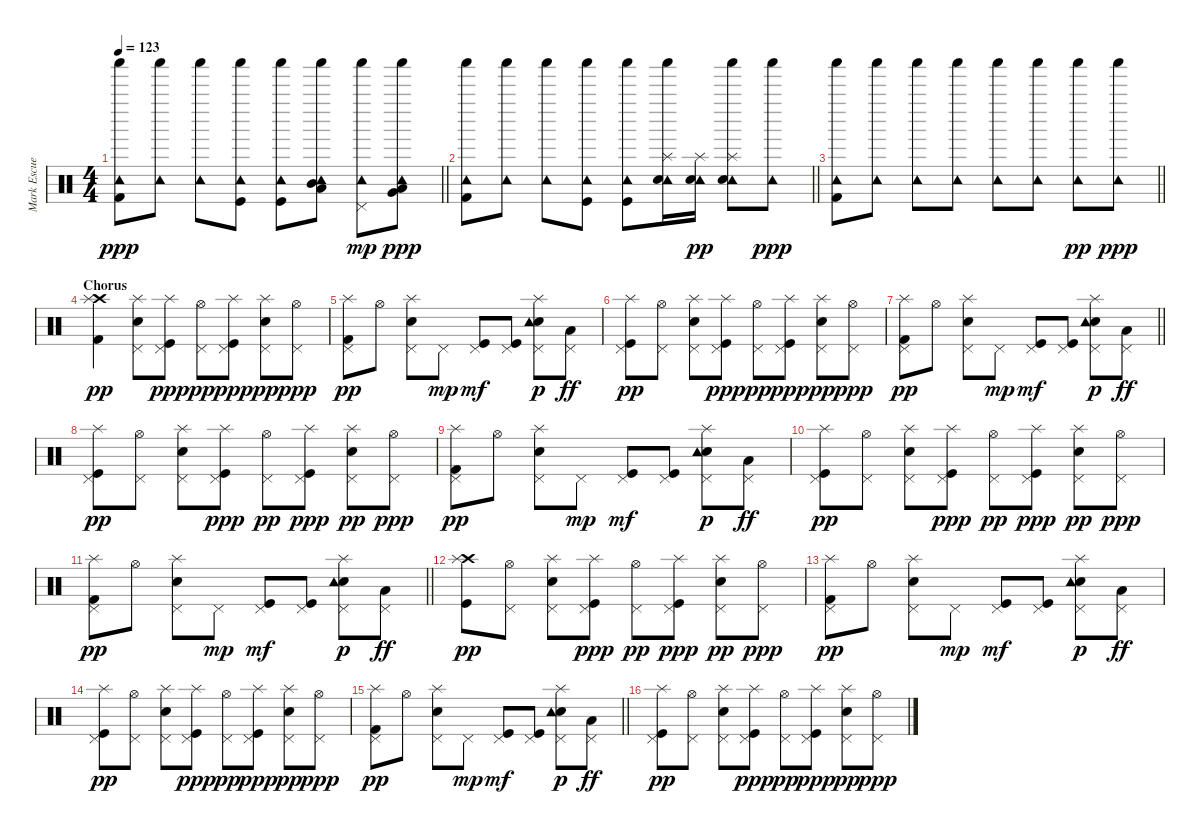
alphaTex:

\track ("Mark Escueta - Drums" "Mark Escue") {instrument percussion}
\staff {score}
\articulation defaults
\ts (4 4)
\tempo 123
\clef neutral
\barLineRight lightlight
\ks c
("Shaker (hit)" "Tambourine (hit)" "Kick (hit) 2").8{dy ppp} ("Shaker (hit)" "Tambourine (hit)").8 ("Shaker (hit)" "Tambourine (hit)").8 ("Shaker (hit)" "Tambourine (hit)" "Kick (hit)").8 ("Shaker (hit)" "Tambourine (hit)" "Kick (hit)").8 ("Shaker (hit)" "Tambourine (hit)" "Low Tom (hit)" "Mid Tom (hit)").8{bu 60} ("Shaker (hit)" "Tambourine (hit)" "Pedal Hi-Hat (hit)").8{dy mp} ("Shaker (hit)" "Tambourine (hit)" "Very Low Tom (hit)" "Low Tom (hit)").8{bu 60 dy ppp} |
\barLineRight lightlight
("Shaker (hit)" "Tambourine (hit)" "Kick (hit) 2").8 ("Shaker (hit)" "Tambourine (hit)").8 ("Shaker (hit)" "Tambourine (hit)").8 ("Shaker (hit)" "Tambourine (hit)" "Kick (hit)").8 ("Shaker (hit)" "Tambourine (hit)" "Kick (hit)").8 ("Shaker (hit)" "Tambourine (hit)" "Electric Snare (hit)" "Splash (hit)").16 ("Tambourine (hit)" "Electric Snare (hit)" "Splash (hit)").16{dy pp} ("Shaker (hit)" "Tambourine (hit)" "Electric Snare (hit)" "Splash (hit)").8 ("Shaker (hit)" "Tambourine (hit)").8{dy ppp} |
\barLineRight lightlight
("Shaker (hit)" "Tambourine (hit)" "Kick (hit) 2").8 ("Shaker (hit)" "Tambourine (hit)").8 ("Shaker (hit)" "Tambourine (hit)").8 ("Shaker (hit)" "Tambourine (hit)").8 ("Shaker (hit)" "Tambourine (hit)").8 ("Shaker (hit)" "Tambourine (hit)").8 ("Shaker (hit)" "Tambourine (hit)").8{dy pp} ("Shaker (hit)" "Tambourine (hit)").8{dy ppp} |
\section ("" "Chorus")
("Crash high (hit)" "Kick (hit) 2" "Splash (hit)").4{dy pp} ("Pedal Hi-Hat (hit)" "Electric Snare (hit)" "Splash (hit)").8 ("Pedal Hi-Hat (hit)" "Kick (hit)" "Splash (hit)").8{dy ppp} ("Pedal Hi-Hat (hit)" "Hi-Hat (open)").8{dy pp} ("Pedal Hi-Hat (hit)" "Kick (hit)" "Splash (hit)").8{dy ppp} ("Pedal Hi-Hat (hit)" "Electric Snare (hit)" "Splash (hit)").8{dy pp} ("Pedal Hi-Hat (hit)" "Hi-Hat (open)").8{dy ppp} |
("Pedal Hi-Hat (hit)" "Kick (hit) 2" "Splash (hit)").8{dy pp} "Hi-Hat (open)".8 ("Pedal Hi-Hat (hit)" "Electric Snare (hit)" "Splash (hit)").8 "Pedal Hi-Hat (hit)".8{dy mp} ("Pedal Hi-Hat (hit)" "Kick (hit)").8{dy mf} ("Pedal Hi-Hat (hit)" "Kick (hit)").8 ("Pedal Hi-Hat (hit)" "Electric Snare (hit)" "Splash (hit)" "Tambourine (hit)").8{dy p} ("Pedal Hi-Hat (hit)" "Low Tom (hit)").8{dy ff} |
("Pedal Hi-Hat (hit)" "Kick (hit)" "Splash (hit)").8{dy pp} ("Pedal Hi-Hat (hit)" "Hi-Hat (open)").8 ("Pedal Hi-Hat (hit)" "Electric Snare (hit)" "Splash (hit)").8 ("Pedal Hi-Hat (hit)" "Kick (hit)" "Splash (hit)").8{dy ppp} ("Pedal Hi-Hat (hit)" "Hi-Hat (open)").8{dy pp} ("Pedal Hi-Hat (hit)" "Kick (hit)" "Splash (hit)").8{dy ppp} ("Pedal Hi-Hat (hit)" "Electric Snare (hit)" "Splash (hit)").8{dy pp} ("Pedal Hi-Hat (hit)" "Hi-Hat (open)").8{dy ppp} |
\barLineRight lightlight
("Pedal Hi-Hat (hit)" "Kick (hit) 2" "Splash (hit)").8{dy pp} "Hi-Hat (open)".8 ("Pedal Hi-Hat (hit)" "Electric Snare (hit)" "Splash (hit)").8 "Pedal Hi-Hat (hit)".8{dy mp} ("Pedal Hi-Hat (hit)" "Kick (hit)").8{dy mf} ("Pedal Hi-Hat (hit)" "Kick (hit)").8 ("Pedal Hi-Hat (hit)" "Electric Snare (hit)" "Splash (hit)" "Tambourine (hit)").8{dy p} ("Pedal Hi-Hat (hit)" "Low Tom (hit)").8{dy ff} |
("Pedal Hi-Hat (hit)" "Kick (hit)" "Splash (hit)").8{dy pp} ("Pedal Hi-Hat (hit)" "Hi-Hat (open)").8 ("Pedal Hi-Hat (hit)" "Electric Snare (hit)" "Splash (hit)").8 ("Pedal Hi-Hat (hit)" "Kick (hit)" "Splash (hit)").8{dy ppp} ("Pedal Hi-Hat (hit)" "Hi-Hat (open)").8{dy pp} ("Pedal Hi-Hat (hit)" "Kick (hit)" "Splash (hit)").8{dy ppp} ("Pedal Hi-Hat (hit)" "Electric Snare (hit)" "Splash (hit)").8{dy pp} ("Pedal Hi-Hat (hit)" "Hi-Hat (open)").8{dy ppp} |
("Pedal Hi-Hat (hit)" "Kick (hit) 2" "Splash (hit)").8{dy pp} "Hi-Hat (open)".8 ("Pedal Hi-Hat (hit)" "Electric Snare (hit)" "Splash (hit)").8 "Pedal Hi-Hat (hit)".8{dy mp} ("Pedal Hi-Hat (hit)" "Kick (hit)").8{dy mf} ("Pedal Hi-Hat (hit)" "Kick (hit)").8 ("Pedal Hi-Hat (hit)" "Electric Snare (hit)" "Splash (hit)" "Tambourine (hit)").8{dy p} ("Pedal Hi-Hat (hit)" "Low Tom (hit)").8{dy ff} |
("Pedal Hi-Hat (hit)" "Kick (hit)" "Splash (hit)").8{dy pp} ("Pedal Hi-Hat (hit)" "Hi-Hat (open)").8 ("Pedal Hi-Hat (hit)" "Electric Snare (hit)" "Splash (hit)").8 ("Pedal Hi-Hat (hit)" "Kick (hit)" "Splash (hit)").8{dy ppp} ("Pedal Hi-Hat (hit)" "Hi-Hat (open)").8{dy pp} ("Pedal Hi-Hat (hit)" "Kick (hit)" "Splash (hit)").8{dy ppp} ("Pedal Hi-Hat (hit)" "Electric Snare (hit)" "Splash (hit)").8{dy pp} ("Pedal Hi-Hat (hit)" "Hi-Hat (open)").8{dy ppp} |
\barLineRight lightlight
("Pedal Hi-Hat (hit)" "Kick (hit) 2" "Splash (hit)").8{dy pp} "Hi-Hat (open)".8 ("Pedal Hi-Hat (hit)" "Electric Snare (hit)" "Splash (hit)").8 "Pedal Hi-Hat (hit)".8{dy mp} ("Pedal Hi-Hat (hit)" "Kick (hit)").8{dy mf} ("Pedal Hi-Hat (hit)" "Kick (hit)").8 ("Pedal Hi-Hat (hit)" "Electric Snare (hit)" "Splash (hit)" "Tambourine (hit)").8{dy p} ("Pedal Hi-Hat (hit)" "Low Tom (hit)").8{dy ff} |
("Crash high (hit)" "Kick (hit)" "Splash (hit)").8{dy pp} ("Pedal Hi-Hat (hit)" "Hi-Hat (open)").8 ("Pedal Hi-Hat (hit)" "Electric Snare (hit)" "Splash (hit)").8 ("Pedal Hi-Hat (hit)" "Kick (hit)" "Splash (hit)").8{dy ppp} ("Pedal Hi-Hat (hit)" "Hi-Hat (open)").8{dy pp} ("Pedal Hi-Hat (hit)" "Kick (hit)" "Splash (hit)").8{dy ppp} ("Pedal Hi-Hat (hit)" "Electric Snare (hit)" "Splash (hit)").8{dy pp} ("Pedal Hi-Hat (hit)" "Hi-Hat (open)").8{dy ppp} |
("Pedal Hi-Hat (hit)" "Kick (hit) 2" "Splash (hit)").8{dy pp} "Hi-Hat (open)".8 ("Pedal Hi-Hat (hit)" "Electric Snare (hit)" "Splash (hit)").8 "Pedal Hi-Hat (hit)".8{dy mp} ("Pedal Hi-Hat (hit)" "Kick (hit)").8{dy mf} ("Pedal Hi-Hat (hit)" "Kick (hit)").8 ("Pedal Hi-Hat (hit)" "Electric Snare (hit)" "Splash (hit)" "Tambourine (hit)").8{dy p} ("Pedal Hi-Hat (hit)" "Low Tom (hit)").8{dy ff} |
("Pedal Hi-Hat (hit)" "Kick (hit)" "Splash (hit)").8{dy pp} ("Pedal Hi-Hat (hit)" "Hi-Hat (open)").8 ("Pedal Hi-Hat (hit)" "Electric Snare (hit)" "Splash (hit)").8 ("Pedal Hi-Hat (hit)" "Kick (hit)" "Splash (hit)").8{dy ppp} ("Pedal Hi-Hat (hit)" "Hi-Hat (open)").8{dy pp} ("Pedal Hi-Hat (hit)" "Kick (hit)" "Splash (hit)").8{dy ppp} ("Pedal Hi-Hat (hit)" "Electric Snare (hit)" "Splash (hit)").8{dy pp} ("Pedal Hi-Hat (hit)" "Hi-Hat (open)").8{dy ppp} |
\barLineRight lightlight
("Pedal Hi-Hat (hit)" "Kick (hit) 2" "Splash (hit)").8{dy pp} "Hi-Hat (open)".8 ("Pedal Hi-Hat (hit)" "Electric Snare (hit)" "Splash (hit)").8 "Pedal Hi-Hat (hit)".8{dy mp} ("Pedal Hi-Hat (hit)" "Kick (hit)").8{dy mf} ("Pedal Hi-Hat (hit)" "Kick (hit)").8 ("Pedal Hi-Hat (hit)" "Electric Snare (hit)" "Splash (hit)" "Tambourine (hit)").8{dy p} ("Pedal Hi-Hat (hit)" "Low Tom (hit)").8{dy ff} |
("Pedal Hi-Hat (hit)" "Kick (hit)" "Splash (hit)").8{dy pp} ("Pedal Hi-Hat (hit)" "Hi-Hat (open)").8 ("Pedal Hi-Hat (hit)" "Electric Snare (hit)" "Splash (hit)").8 ("Pedal Hi-Hat (hit)" "Kick (hit)" "Splash (hit)").8{dy ppp} ("Pedal Hi-Hat (hit)" "Hi-Hat (open)").8{dy pp} ("Pedal Hi-Hat (hit)" "Kick (hit)" "Splash (hit)").8{dy ppp} ("Pedal Hi-Hat (hit)" "Electric Snare (hit)" "Splash (hit)").8{dy pp} ("Pedal Hi-Hat (hit)" "Hi-Hat (open)").8{dy ppp}
